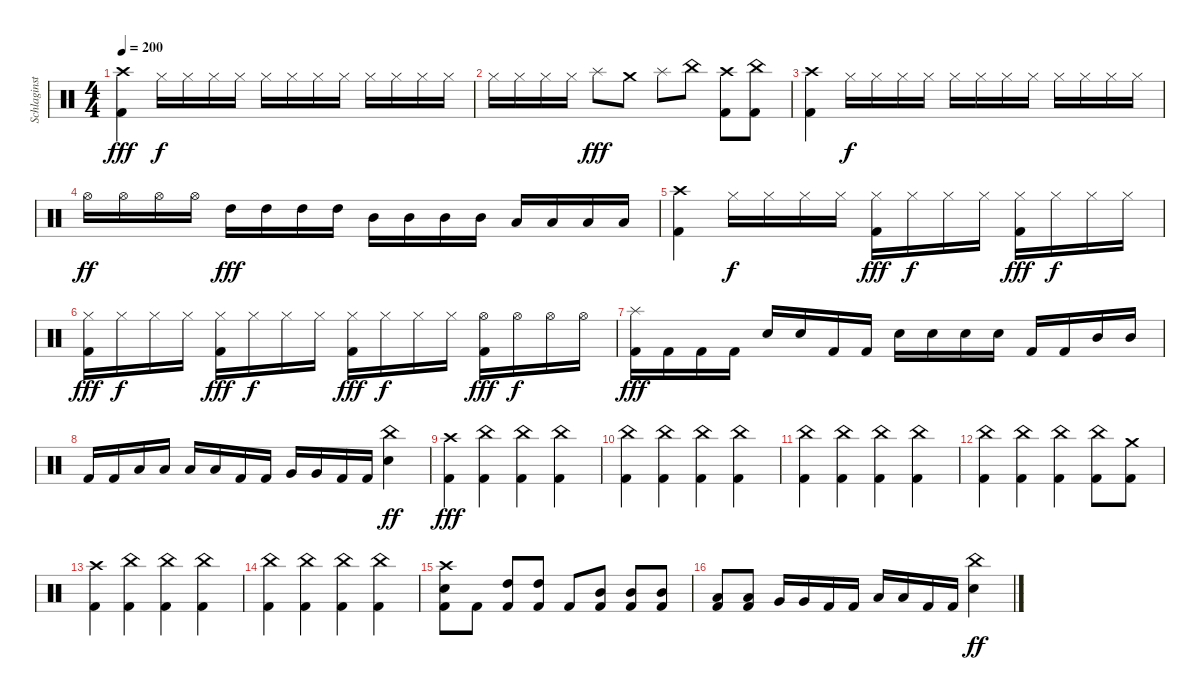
\track ("Schlaginstrumente - Auswahl" "Schlaginst") {instrument percussion}
\staff {score}
\articulation defaults
\ts (4 4)
\tempo 200
\clef neutral
\ks c
("Crash high (hit)" "Kick (hit) 2").4{dy fff} "Hi-Hat (closed)".16{dy f} "Hi-Hat (closed)".16 "Hi-Hat (closed)".16 "Hi-Hat (closed)".16 "Hi-Hat (closed)".16 "Hi-Hat (closed)".16 "Hi-Hat (closed)".16 "Hi-Hat (closed)".16 "Hi-Hat (closed)".16 "Hi-Hat (closed)".16 "Hi-Hat (closed)".16 "Hi-Hat (closed)".16 |
"Hi-Hat (closed)".16 "Hi-Hat (closed)".16 "Hi-Hat (closed)".16 "Hi-Hat (closed)".16 "Splash (hit)".8{dy fff} "Crash medium (hit)".8 "Splash (hit)".8 "China (hit)".8 ("Crash high (hit)" "Kick (hit) 2").8 ("China (hit)" "Kick (hit) 2").8 |
("Crash high (hit)" "Kick (hit) 2").4 "Hi-Hat (closed)".16{dy f} "Hi-Hat (closed)".16 "Hi-Hat (closed)".16 "Hi-Hat (closed)".16 "Hi-Hat (closed)".16 "Hi-Hat (closed)".16 "Hi-Hat (closed)".16 "Hi-Hat (closed)".16 "Hi-Hat (closed)".16 "Hi-Hat (closed)".16 "Hi-Hat (closed)".16 "Hi-Hat (closed)".16 |
"Hi-Hat (open)".16{dy ff} "Hi-Hat (open)".16 "Hi-Hat (open)".16 "Hi-Hat (open)".16 "High Tom (hit)".16{dy fff} "High Tom (hit)".16 "High Tom (hit)".16 "High Tom (hit)".16 "Mid Tom (hit)".16 "Mid Tom (hit)".16 "Mid Tom (hit)".16 "Mid Tom (hit)".16 "Low Tom (hit)".16 "Low Tom (hit)".16 "Low Tom (hit)".16 "Low Tom (hit)".16 |
("Crash high (hit)" "Kick (hit) 2").4 "Hi-Hat (closed)".16{dy f} "Hi-Hat (closed)".16 "Hi-Hat (closed)".16 "Hi-Hat (closed)".16 ("Hi-Hat (closed)" "Kick (hit) 2").16{dy fff} "Hi-Hat (closed)".16{dy f} "Hi-Hat (closed)".16 "Hi-Hat (closed)".16 ("Hi-Hat (closed)" "Kick (hit) 2").16{dy fff} "Hi-Hat (closed)".16{dy f} "Hi-Hat (closed)".16 "Hi-Hat (closed)".16 |
("Hi-Hat (closed)" "Kick (hit) 2").16{dy fff} "Hi-Hat (closed)".16{dy f} "Hi-Hat (closed)".16 "Hi-Hat (closed)".16 ("Hi-Hat (closed)" "Kick (hit) 2").16{dy fff} "Hi-Hat (closed)".16{dy f} "Hi-Hat (closed)".16 "Hi-Hat (closed)".16 ("Hi-Hat (closed)" "Kick (hit) 2").16{dy fff} "Hi-Hat (closed)".16{dy f} "Hi-Hat (closed)".16 "Hi-Hat (closed)".16 ("Hi-Hat (open)" "Kick (hit) 2").16{dy fff} "Hi-Hat (open)".16{dy f} "Hi-Hat (open)".16 "Hi-Hat (open)".16 |
("Splash (hit)" "Kick (hit) 2").16{dy fff} "Kick (hit) 2".16 "Kick (hit) 2".16 "Kick (hit) 2".16 "Snare (hit) 2".16 "Snare (hit) 2".16 "Kick (hit) 2".16 "Kick (hit) 2".16 "Snare (hit) 2".16 "Snare (hit) 2".16 "Snare (hit) 2".16 "Snare (hit) 2".16 "Kick (hit) 2".16 "Kick (hit) 2".16 "Mid Tom (hit)".16 "Mid Tom (hit)".16 |
"Kick (hit) 2".16 "Kick (hit) 2".16 "Low Tom (hit)".16 "Low Tom (hit)".16 "Low Tom (hit)".16 "Low Tom (hit)".16 "Kick (hit) 2".16 "Kick (hit) 2".16 "Very Low Tom (hit)".16 "Very Low Tom (hit)".16 "Kick (hit) 2".16 "Kick (hit) 2".16 ("China (hit)" "Snare (hit) 2").4{dy ff} |
("Crash high (hit)" "Kick (hit) 2").4{dy fff} ("China (hit)" "Kick (hit) 2").4 ("China (hit)" "Kick (hit) 2").4 ("China (hit)" "Kick (hit) 2").4 |
("China (hit)" "Kick (hit) 2").4 ("China (hit)" "Kick (hit) 2").4 ("China (hit)" "Kick (hit) 2").4 ("China (hit)" "Kick (hit) 2").4 |
("China (hit)" "Kick (hit) 2").4 ("China (hit)" "Kick (hit) 2").4 ("China (hit)" "Kick (hit) 2").4 ("China (hit)" "Kick (hit) 2").4 |
("China (hit)" "Kick (hit) 2").4 ("China (hit)" "Kick (hit) 2").4 ("China (hit)" "Kick (hit) 2").4 ("China (hit)" "Kick (hit) 2").8 ("Crash medium (hit)" "Kick (hit) 2").8 |
("Crash high (hit)" "Kick (hit) 2").4 ("China (hit)" "Kick (hit) 2").4 ("China (hit)" "Kick (hit) 2").4 ("China (hit)" "Kick (hit) 2").4 |
("China (hit)" "Kick (hit) 2").4 ("China (hit)" "Kick (hit) 2").4 ("China (hit)" "Kick (hit) 2").4 ("China (hit)" "Kick (hit) 2").4 |
("Crash high (hit)" "Snare (hit) 2" "Kick (hit) 2").8 "Kick (hit) 2".8 ("High Tom (hit)" "Kick (hit) 2").8 ("High Tom (hit)" "Kick (hit) 2").8 "Kick (hit) 2".8 ("Mid Tom (hit)" "Kick (hit) 2").8 ("Mid Tom (hit)" "Kick (hit) 2").8 ("Mid Tom (hit)" "Kick (hit) 2").8 |
("Low Tom (hit)" "Kick (hit) 2").8 ("Low Tom (hit)" "Kick (hit) 2").8 "Very Low Tom (hit)".16 "Very Low Tom (hit)".16 "Kick (hit) 2".16 "Kick (hit) 2".16 "Low Floor Tom (hit)".16 "Low Floor Tom (hit)".16 "Kick (hit) 2".16 "Kick (hit) 2".16 ("China (hit)" "Snare (hit) 2").4{dy ff}
